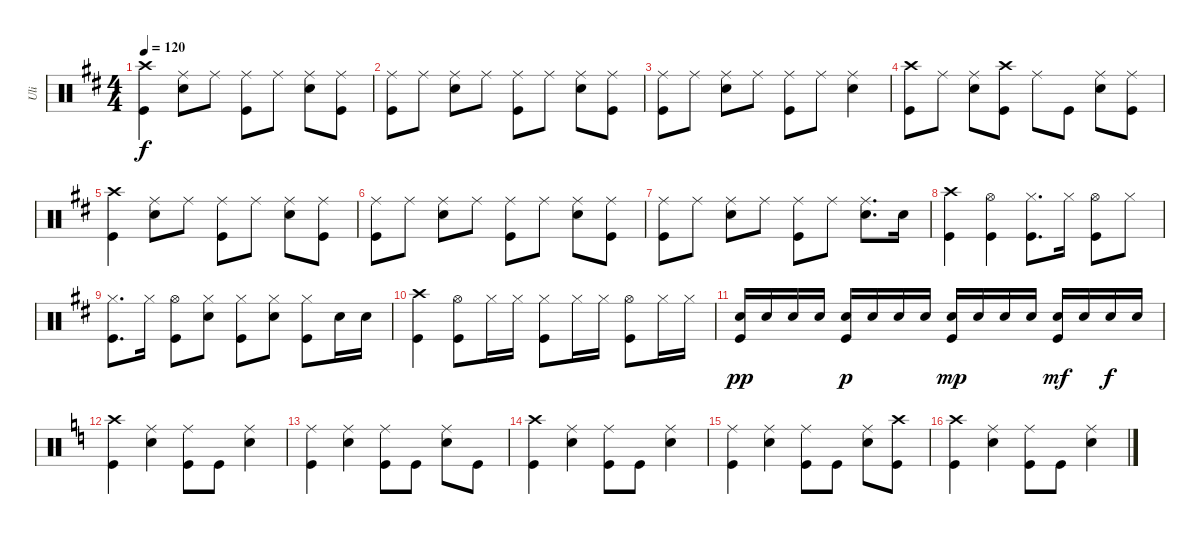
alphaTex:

\track ("Uli" "Uli") {instrument percussion}
\staff {score}
\articulation defaults
\ts (4 4)
\tempo 120
\clef neutral
\ks bminor
("Crash high (hit)" "Kick (hit)").4{dy f} ("Ride (middle)" "Snare (hit) 2").8 "Ride (middle)".8 ("Ride (middle)" "Kick (hit)").8 "Ride (middle)".8 ("Ride (middle)" "Snare (hit) 2").8 ("Ride (middle)" "Kick (hit)").8 |
("Ride (middle)" "Kick (hit)").8 "Ride (middle)".8 ("Ride (middle)" "Snare (hit) 2").8 "Ride (middle)".8 ("Ride (middle)" "Kick (hit)").8 "Ride (middle)".8 ("Ride (middle)" "Snare (hit) 2").8 ("Ride (middle)" "Kick (hit)").8 |
("Ride (middle)" "Kick (hit)").8 "Ride (middle)".8 ("Ride (middle)" "Snare (hit) 2").8 "Ride (middle)".8 ("Ride (middle)" "Kick (hit)").8 "Ride (middle)".8 ("Ride (middle)" "Snare (hit) 2").4 |
("Crash high (hit)" "Kick (hit)").8 "Ride (middle)".8 ("Ride (middle)" "Snare (hit) 2").8 ("Crash high (hit)" "Kick (hit)").8 "Ride (middle)".8 "Kick (hit)".8 ("Ride (middle)" "Snare (hit) 2").8 ("Ride (middle)" "Kick (hit)").8 |
("Crash high (hit)" "Kick (hit)").4 ("Ride (middle)" "Snare (hit) 2").8 "Ride (middle)".8 ("Ride (middle)" "Kick (hit)").8 "Ride (middle)".8 ("Ride (middle)" "Snare (hit) 2").8 ("Ride (middle)" "Kick (hit)").8 |
("Ride (middle)" "Kick (hit)").8 "Ride (middle)".8 ("Ride (middle)" "Snare (hit) 2").8 "Ride (middle)".8 ("Ride (middle)" "Kick (hit)").8 "Ride (middle)".8 ("Ride (middle)" "Snare (hit) 2").8 ("Ride (middle)" "Kick (hit)").8 |
("Ride (middle)" "Kick (hit)").8 "Ride (middle)".8 ("Ride (middle)" "Snare (hit) 2").8 "Ride (middle)".8 ("Ride (middle)" "Kick (hit)").8 "Ride (middle)".8 ("Ride (middle)" "Snare (hit) 2").8{d} "Snare (hit) 2".16 |
("Crash high (hit)" "Kick (hit)").4 ("Hi-Hat (open)" "Kick (hit)").4 ("Hi-Hat (closed)" "Kick (hit)").8{d} "Hi-Hat (closed)".16 ("Hi-Hat (open)" "Kick (hit)").8 "Hi-Hat (closed)".8 |
("Hi-Hat (closed)" "Kick (hit)").8{d} "Hi-Hat (closed)".16 ("Hi-Hat (open)" "Kick (hit)").8 ("Hi-Hat (closed)" "Snare (hit) 2").8 ("Hi-Hat (closed)" "Kick (hit)").8 ("Hi-Hat (closed)" "Snare (hit) 2").8 ("Hi-Hat (closed)" "Kick (hit)").8 "Snare (hit) 2".16 "Snare (hit) 2".16 |
("Crash high (hit)" "Kick (hit)").4 ("Hi-Hat (open)" "Kick (hit)").8 "Hi-Hat (closed)".16 "Hi-Hat (closed)".16 ("Hi-Hat (closed)" "Kick (hit)").8 "Hi-Hat (closed)".16 "Hi-Hat (closed)".16 ("Hi-Hat (open)" "Kick (hit)").8 "Hi-Hat (closed)".16 "Hi-Hat (closed)".16 |
("Snare (hit) 2" "Kick (hit)").16{dy pp} "Snare (hit) 2".16 "Snare (hit) 2".16 "Snare (hit) 2".16 ("Snare (hit) 2" "Kick (hit)").16{dy p} "Snare (hit) 2".16 "Snare (hit) 2".16 "Snare (hit) 2".16 ("Snare (hit) 2" "Kick (hit)").16{dy mp} "Snare (hit) 2".16 "Snare (hit) 2".16 "Snare (hit) 2".16 ("Snare (hit) 2" "Kick (hit)").16{dy mf} "Snare (hit) 2".16 "Snare (hit) 2".16{dy f} "Snare (hit) 2".16 |
\ks aminor
("Crash high (hit)" "Kick (hit)").4 ("Ride (middle)" "Snare (hit) 2").4 ("Ride (middle)" "Kick (hit)").8 "Kick (hit)".8 ("Ride (middle)" "Snare (hit) 2").4 |
("Ride (middle)" "Kick (hit)").4 ("Ride (middle)" "Snare (hit) 2").4 ("Ride (middle)" "Kick (hit)").8 "Kick (hit)".8 ("Ride (middle)" "Snare (hit) 2").8 "Kick (hit)".8 |
("Crash high (hit)" "Kick (hit)").4 ("Ride (middle)" "Snare (hit) 2").4 ("Ride (middle)" "Kick (hit)").8 "Kick (hit)".8 ("Ride (middle)" "Snare (hit) 2").4 |
("Ride (middle)" "Kick (hit)").4 ("Ride (middle)" "Snare (hit) 2").4 ("Ride (middle)" "Kick (hit)").8 "Kick (hit)".8 ("Ride (middle)" "Snare (hit) 2").8 ("Crash high (hit)" "Kick (hit)").8 |
("Crash high (hit)" "Kick (hit)").4 ("Ride (middle)" "Snare (hit) 2").4 ("Ride (middle)" "Kick (hit)").8 "Kick (hit)".8 ("Ride (middle)" "Snare (hit) 2").4
